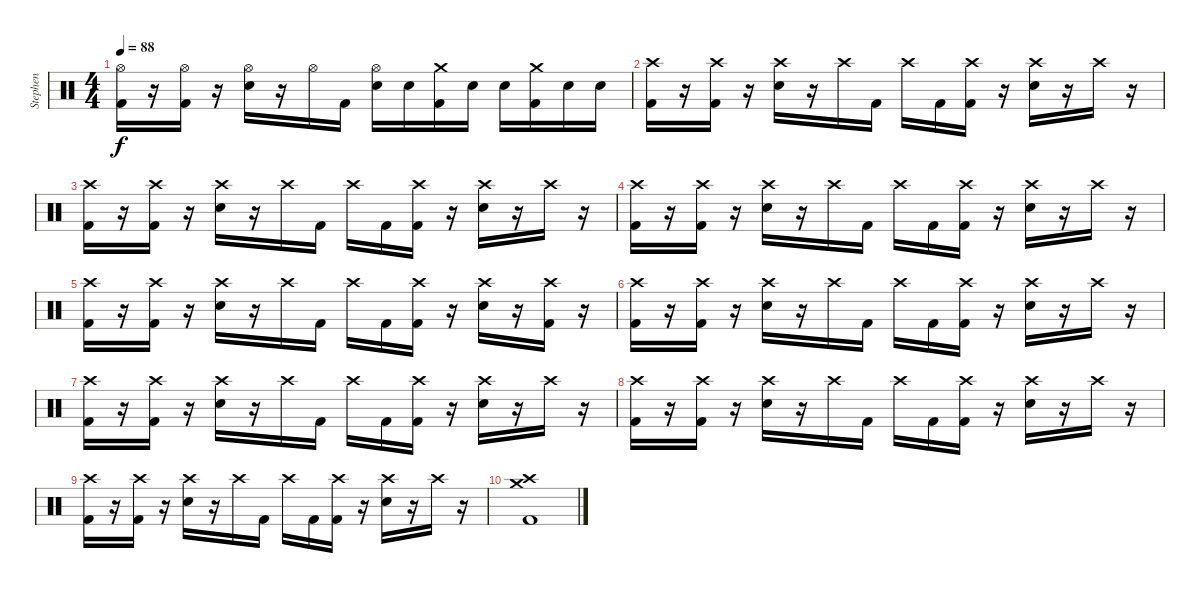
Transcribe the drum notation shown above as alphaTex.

\track ("Stephen" "Stephen") {instrument percussion}
\staff {score}
\articulation defaults
\ts (4 4)
\tempo 88
\clef neutral
\ks c
("Hi-Hat (open)" "Kick (hit) 2").16{dy f} r.16 ("Hi-Hat (open)" "Kick (hit) 2").16 r.16 ("Hi-Hat (open)" "Electric Snare (hit)").16 r.16 "Hi-Hat (open)".16 "Kick (hit) 2".16 ("Hi-Hat (open)" "Electric Snare (hit)").16 "Electric Snare (hit)".16 ("Crash medium (hit)" "Kick (hit) 2").16 "Electric Snare (hit)".16 "Electric Snare (hit)".16 ("Crash medium (hit)" "Kick (hit) 2").16 "Electric Snare (hit)".16 "Electric Snare (hit)".16 |
("Crash high (hit)" "Kick (hit) 2").16 r.16 ("Crash high (hit)" "Kick (hit) 2").16 r.16 ("Crash high (hit)" "Electric Snare (hit)").16 r.16 "Crash high (hit)".16 "Kick (hit) 2".16 "Crash high (hit)".16 "Kick (hit) 2".16 ("Crash high (hit)" "Kick (hit) 2").16 r.16 ("Crash high (hit)" "Electric Snare (hit)").16 r.16 "Crash high (hit)".16 r.16 |
("Crash high (hit)" "Kick (hit) 2").16 r.16 ("Crash high (hit)" "Kick (hit) 2").16 r.16 ("Crash high (hit)" "Electric Snare (hit)").16 r.16 "Crash high (hit)".16 "Kick (hit) 2".16 "Crash high (hit)".16 "Kick (hit) 2".16 ("Crash high (hit)" "Kick (hit) 2").16 r.16 ("Crash high (hit)" "Electric Snare (hit)").16 r.16 "Crash high (hit)".16 r.16 |
("Crash high (hit)" "Kick (hit) 2").16 r.16 ("Crash high (hit)" "Kick (hit) 2").16 r.16 ("Crash high (hit)" "Electric Snare (hit)").16 r.16 "Crash high (hit)".16 "Kick (hit) 2".16 "Crash high (hit)".16 "Kick (hit) 2".16 ("Crash high (hit)" "Kick (hit) 2").16 r.16 ("Crash high (hit)" "Electric Snare (hit)").16 r.16 "Crash high (hit)".16 r.16 |
("Crash high (hit)" "Kick (hit) 2").16 r.16 ("Crash high (hit)" "Kick (hit) 2").16 r.16 ("Crash high (hit)" "Electric Snare (hit)").16 r.16 "Crash high (hit)".16 "Kick (hit) 2".16 "Crash high (hit)".16 "Kick (hit) 2".16 ("Crash high (hit)" "Kick (hit) 2").16 r.16 ("Crash high (hit)" "Electric Snare (hit)").16 r.16 ("Crash high (hit)" "Kick (hit) 2").16 r.16 |
("Crash high (hit)" "Kick (hit) 2").16 r.16 ("Crash high (hit)" "Kick (hit) 2").16 r.16 ("Crash high (hit)" "Electric Snare (hit)").16 r.16 "Crash high (hit)".16 "Kick (hit) 2".16 "Crash high (hit)".16 "Kick (hit) 2".16 ("Crash high (hit)" "Kick (hit) 2").16 r.16 ("Crash high (hit)" "Electric Snare (hit)").16 r.16 "Crash high (hit)".16 r.16 |
("Crash high (hit)" "Kick (hit) 2").16 r.16 ("Crash high (hit)" "Kick (hit) 2").16 r.16 ("Crash high (hit)" "Electric Snare (hit)").16 r.16 "Crash high (hit)".16 "Kick (hit) 2".16 "Crash high (hit)".16 "Kick (hit) 2".16 ("Crash high (hit)" "Kick (hit) 2").16 r.16 ("Crash high (hit)" "Electric Snare (hit)").16 r.16 "Crash high (hit)".16 r.16 |
("Crash high (hit)" "Kick (hit) 2").16 r.16 ("Crash high (hit)" "Kick (hit) 2").16 r.16 ("Crash high (hit)" "Electric Snare (hit)").16 r.16 "Crash high (hit)".16 "Kick (hit) 2".16 "Crash high (hit)".16 "Kick (hit) 2".16 ("Crash high (hit)" "Kick (hit) 2").16 r.16 ("Crash high (hit)" "Electric Snare (hit)").16 r.16 "Crash high (hit)".16 r.16 |
("Crash high (hit)" "Kick (hit) 2").16 r.16 ("Crash high (hit)" "Kick (hit) 2").16 r.16 ("Crash high (hit)" "Electric Snare (hit)").16 r.16 "Crash high (hit)".16 "Kick (hit) 2".16 "Crash high (hit)".16 "Kick (hit) 2".16 ("Crash high (hit)" "Kick (hit) 2").16 r.16 ("Crash high (hit)" "Electric Snare (hit)").16 r.16 "Crash high (hit)".16 r.16 |
("Crash high (hit)" "Crash medium (hit)" "Kick (hit) 2").1
